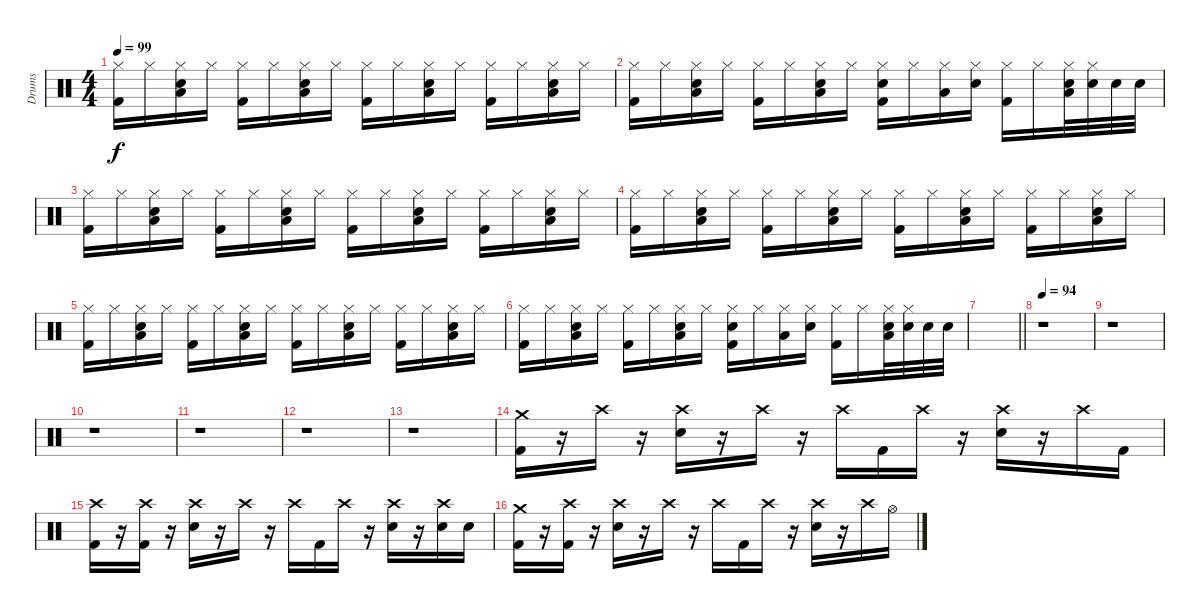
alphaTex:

\track ("Drums" "Drums") {instrument percussion}
\staff {score}
\articulation defaults
\ts (4 4)
\tempo 99
\clef neutral
\ks c
("Hi-Hat (closed)" "Kick (hit) 2").16{dy f} "Hi-Hat (closed)".16 ("Hi-Hat (closed)" "Snare (hit) 2" "Low Tom (hit)").16 "Hi-Hat (closed)".16 ("Hi-Hat (closed)" "Kick (hit) 2").16 "Hi-Hat (closed)".16 ("Hi-Hat (closed)" "Snare (hit) 2" "Low Tom (hit)").16 "Hi-Hat (closed)".16 ("Hi-Hat (closed)" "Kick (hit) 2").16 "Hi-Hat (closed)".16 ("Hi-Hat (closed)" "Snare (hit) 2" "Low Tom (hit)").16 "Hi-Hat (closed)".16 ("Hi-Hat (closed)" "Kick (hit) 2").16 "Hi-Hat (closed)".16 ("Hi-Hat (closed)" "Snare (hit) 2" "Low Tom (hit)").16 "Hi-Hat (closed)".16 |
("Hi-Hat (closed)" "Kick (hit) 2").16 "Hi-Hat (closed)".16 ("Hi-Hat (closed)" "Snare (hit) 2" "Low Tom (hit)").16 "Hi-Hat (closed)".16 ("Hi-Hat (closed)" "Kick (hit) 2").16 "Hi-Hat (closed)".16 ("Hi-Hat (closed)" "Snare (hit) 2" "Low Tom (hit)").16 "Hi-Hat (closed)".16 ("Hi-Hat (closed)" "Snare (hit) 2" "Kick (hit) 2").16 "Hi-Hat (closed)".16 ("Hi-Hat (closed)" "Low Tom (hit)").16 ("Hi-Hat (closed)" "Snare (hit) 2").16 ("Hi-Hat (closed)" "Kick (hit) 2").16 "Hi-Hat (closed)".16 ("Hi-Hat (closed)" "Snare (hit) 2" "Low Tom (hit)").32 ("Hi-Hat (closed)" "Snare (hit) 2").32 "Snare (hit) 2".32 "Snare (hit) 2".32 |
("Hi-Hat (closed)" "Kick (hit) 2").16 "Hi-Hat (closed)".16 ("Hi-Hat (closed)" "Snare (hit) 2" "Low Tom (hit)").16 "Hi-Hat (closed)".16 ("Hi-Hat (closed)" "Kick (hit) 2").16 "Hi-Hat (closed)".16 ("Hi-Hat (closed)" "Snare (hit) 2" "Low Tom (hit)").16 "Hi-Hat (closed)".16 ("Hi-Hat (closed)" "Kick (hit) 2").16 "Hi-Hat (closed)".16 ("Hi-Hat (closed)" "Snare (hit) 2" "Low Tom (hit)").16 "Hi-Hat (closed)".16 ("Hi-Hat (closed)" "Kick (hit) 2").16 "Hi-Hat (closed)".16 ("Hi-Hat (closed)" "Snare (hit) 2" "Low Tom (hit)").16 "Hi-Hat (closed)".16 |
("Hi-Hat (closed)" "Kick (hit) 2").16 "Hi-Hat (closed)".16 ("Hi-Hat (closed)" "Snare (hit) 2" "Low Tom (hit)").16 "Hi-Hat (closed)".16 ("Hi-Hat (closed)" "Kick (hit) 2").16 "Hi-Hat (closed)".16 ("Hi-Hat (closed)" "Snare (hit) 2" "Low Tom (hit)").16 "Hi-Hat (closed)".16 ("Hi-Hat (closed)" "Kick (hit) 2").16 "Hi-Hat (closed)".16 ("Hi-Hat (closed)" "Snare (hit) 2" "Low Tom (hit)").16 "Hi-Hat (closed)".16 ("Hi-Hat (closed)" "Kick (hit) 2").16 "Hi-Hat (closed)".16 ("Hi-Hat (closed)" "Snare (hit) 2" "Low Tom (hit)").16 "Hi-Hat (closed)".16 |
("Hi-Hat (closed)" "Kick (hit) 2").16 "Hi-Hat (closed)".16 ("Hi-Hat (closed)" "Snare (hit) 2" "Low Tom (hit)").16 "Hi-Hat (closed)".16 ("Hi-Hat (closed)" "Kick (hit) 2").16 "Hi-Hat (closed)".16 ("Hi-Hat (closed)" "Snare (hit) 2" "Low Tom (hit)").16 "Hi-Hat (closed)".16 ("Hi-Hat (closed)" "Kick (hit) 2").16 "Hi-Hat (closed)".16 ("Hi-Hat (closed)" "Snare (hit) 2" "Low Tom (hit)").16 "Hi-Hat (closed)".16 ("Hi-Hat (closed)" "Kick (hit) 2").16 "Hi-Hat (closed)".16 ("Hi-Hat (closed)" "Snare (hit) 2" "Low Tom (hit)").16 "Hi-Hat (closed)".16 |
("Hi-Hat (closed)" "Kick (hit) 2").16 "Hi-Hat (closed)".16 ("Hi-Hat (closed)" "Snare (hit) 2" "Low Tom (hit)").16 "Hi-Hat (closed)".16 ("Hi-Hat (closed)" "Kick (hit) 2").16 "Hi-Hat (closed)".16 ("Hi-Hat (closed)" "Snare (hit) 2" "Low Tom (hit)").16 "Hi-Hat (closed)".16 ("Hi-Hat (closed)" "Snare (hit) 2" "Kick (hit) 2").16 "Hi-Hat (closed)".16 ("Hi-Hat (closed)" "Low Tom (hit)").16 ("Hi-Hat (closed)" "Snare (hit) 2").16 ("Hi-Hat (closed)" "Kick (hit) 2").16 "Hi-Hat (closed)".16 ("Hi-Hat (closed)" "Snare (hit) 2" "Low Tom (hit)").32 ("Hi-Hat (closed)" "Snare (hit) 2").32 "Snare (hit) 2".32 "Snare (hit) 2".32 |
\barLineRight lightlight
|
\tempo 94
r.1 |
r.1 |
r.1 |
r.1 |
r.1 |
r.1 |
("Crash medium (hit)" "Kick (hit) 2").16 r.16 "Crash high (hit)".16 r.16 ("Crash high (hit)" "Electric Snare (hit)").16 r.16 "Crash high (hit)".16 r.16 "Crash high (hit)".16 "Kick (hit) 2".16 "Crash high (hit)".16 r.16 ("Crash high (hit)" "Electric Snare (hit)").16 r.16 "Crash high (hit)".16 "Kick (hit) 2".16 |
("Crash high (hit)" "Kick (hit) 2").16 r.16 ("Crash high (hit)" "Kick (hit) 2").16 r.16 ("Crash high (hit)" "Electric Snare (hit)").16 r.16 "Crash high (hit)".16 r.16 "Crash high (hit)".16 "Kick (hit) 2".16 "Crash high (hit)".16 r.16 ("Crash high (hit)" "Electric Snare (hit)").16 r.16 ("Crash high (hit)" "Electric Snare (hit)").16 "Electric Snare (hit)".16 |
("Crash medium (hit)" "Kick (hit) 2").16 r.16 ("Crash high (hit)" "Kick (hit) 2").16 r.16 ("Crash high (hit)" "Electric Snare (hit)").16 r.16 "Crash high (hit)".16 r.16 "Crash high (hit)".16 "Kick (hit) 2".16 "Crash high (hit)".16 r.16 ("Crash high (hit)" "Electric Snare (hit)").16 r.16 "Crash high (hit)".16 "Hi-Hat (open)".16
